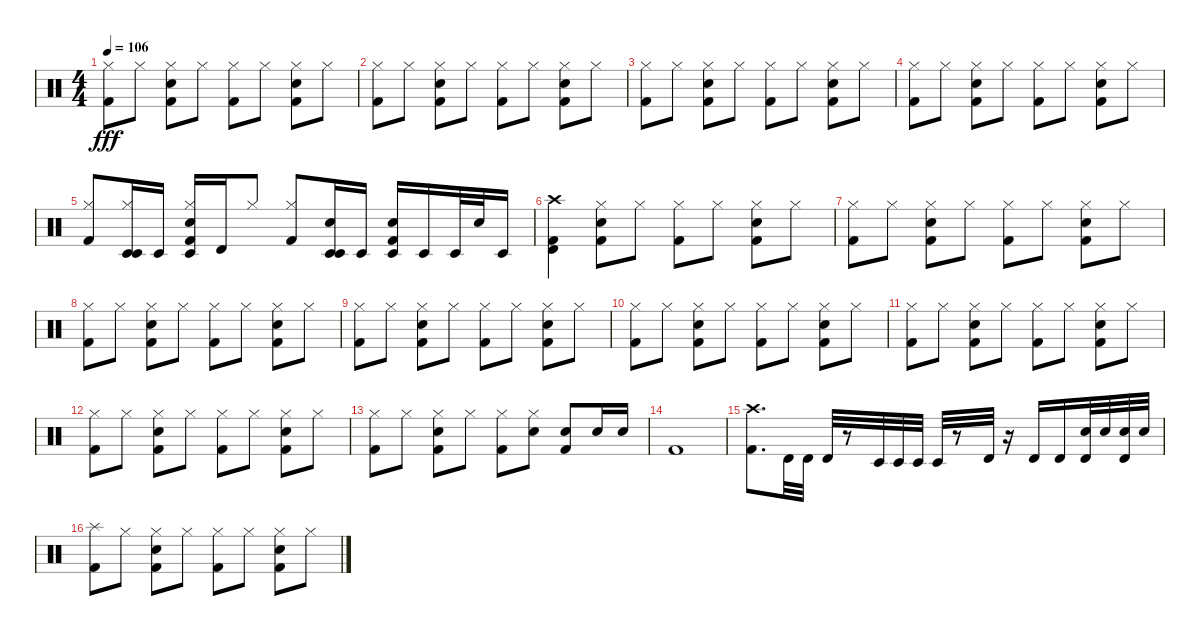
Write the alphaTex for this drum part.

\track "" {instrument percussion}
\staff {score}
\articulation defaults
\ts (4 4)
\tempo 106
\clef neutral
\ks c
("Kick (hit) 2" "Hi-Hat (closed)").8{dy fff} "Hi-Hat (closed)".8 ("Kick (hit) 2" "Snare (hit) 2" "Hi-Hat (closed)").8 "Hi-Hat (closed)".8 ("Kick (hit) 2" "Hi-Hat (closed)").8 "Hi-Hat (closed)".8 ("Kick (hit) 2" "Snare (hit) 2" "Hi-Hat (closed)").8 "Hi-Hat (closed)".8 |
("Kick (hit) 2" "Hi-Hat (closed)").8 "Hi-Hat (closed)".8 ("Kick (hit) 2" "Snare (hit) 2" "Hi-Hat (closed)").8 "Hi-Hat (closed)".8 ("Kick (hit) 2" "Hi-Hat (closed)").8 "Hi-Hat (closed)".8 ("Kick (hit) 2" "Snare (hit) 2" "Hi-Hat (closed)").8 "Hi-Hat (closed)".8 |
("Kick (hit) 2" "Hi-Hat (closed)").8 "Hi-Hat (closed)".8 ("Kick (hit) 2" "Snare (hit) 2" "Hi-Hat (closed)").8 "Hi-Hat (closed)".8 ("Kick (hit) 2" "Hi-Hat (closed)").8 "Hi-Hat (closed)".8 ("Kick (hit) 2" "Snare (hit) 2" "Hi-Hat (closed)").8 "Hi-Hat (closed)".8 |
("Kick (hit) 2" "Hi-Hat (closed)").8 "Hi-Hat (closed)".8 ("Kick (hit) 2" "Snare (hit) 2" "Hi-Hat (closed)").8 "Hi-Hat (closed)".8 ("Kick (hit) 2" "Hi-Hat (closed)").8 "Hi-Hat (closed)".8 ("Kick (hit) 2" "Snare (hit) 2" "Hi-Hat (closed)").8 "Hi-Hat (closed)".8 |
("Kick (hit) 2" "Hi-Hat (closed)").8 ("Timbale low (hit)" "Hi-Hat (closed)" "Timbale low (hit)").16 "Timbale low (hit)".16 ("Hi-Hat (closed)" "Kick (hit) 2" "Snare (hit) 2" "Timbale low (hit)").16 "Timbale high (hit)".16 "Hi-Hat (closed)".8 ("Kick (hit) 2" "Hi-Hat (closed)").8 ("Timbale low (hit)" "Snare (hit) 2" "Timbale low (hit)").16 "Timbale low (hit)".16 ("Kick (hit) 2" "Timbale low (hit)" "Snare (hit) 2").16 "Timbale low (hit)".16 "Timbale low (hit)".32 "Snare (hit) 2".32 "Timbale low (hit)".16 |
("Kick (hit) 2" "Crash high (hit)" "Timbale high (hit)").4 ("Kick (hit) 2" "Snare (hit) 2" "Hi-Hat (closed)").8 "Hi-Hat (closed)".8 ("Kick (hit) 2" "Hi-Hat (closed)").8 "Hi-Hat (closed)".8 ("Kick (hit) 2" "Snare (hit) 2" "Hi-Hat (closed)").8 "Hi-Hat (closed)".8 |
("Kick (hit) 2" "Hi-Hat (closed)").8 "Hi-Hat (closed)".8 ("Kick (hit) 2" "Snare (hit) 2" "Hi-Hat (closed)").8 "Hi-Hat (closed)".8 ("Kick (hit) 2" "Hi-Hat (closed)").8 "Hi-Hat (closed)".8 ("Kick (hit) 2" "Snare (hit) 2" "Hi-Hat (closed)").8 "Hi-Hat (closed)".8 |
("Kick (hit) 2" "Hi-Hat (closed)").8 "Hi-Hat (closed)".8 ("Kick (hit) 2" "Snare (hit) 2" "Hi-Hat (closed)").8 "Hi-Hat (closed)".8 ("Kick (hit) 2" "Hi-Hat (closed)").8 "Hi-Hat (closed)".8 ("Kick (hit) 2" "Snare (hit) 2" "Hi-Hat (closed)").8 "Hi-Hat (closed)".8 |
("Kick (hit) 2" "Hi-Hat (closed)").8 "Hi-Hat (closed)".8 ("Kick (hit) 2" "Snare (hit) 2" "Hi-Hat (closed)").8 "Hi-Hat (closed)".8 ("Kick (hit) 2" "Hi-Hat (closed)").8 "Hi-Hat (closed)".8 ("Kick (hit) 2" "Snare (hit) 2" "Hi-Hat (closed)").8 "Hi-Hat (closed)".8 |
("Kick (hit) 2" "Hi-Hat (closed)").8 "Hi-Hat (closed)".8 ("Kick (hit) 2" "Snare (hit) 2" "Hi-Hat (closed)").8 "Hi-Hat (closed)".8 ("Kick (hit) 2" "Hi-Hat (closed)").8 "Hi-Hat (closed)".8 ("Kick (hit) 2" "Snare (hit) 2" "Hi-Hat (closed)").8 "Hi-Hat (closed)".8 |
("Kick (hit) 2" "Hi-Hat (closed)").8 "Hi-Hat (closed)".8 ("Kick (hit) 2" "Snare (hit) 2" "Hi-Hat (closed)").8 "Hi-Hat (closed)".8 ("Kick (hit) 2" "Hi-Hat (closed)").8 "Hi-Hat (closed)".8 ("Kick (hit) 2" "Snare (hit) 2" "Hi-Hat (closed)").8 "Hi-Hat (closed)".8 |
("Kick (hit) 2" "Hi-Hat (closed)").8 "Hi-Hat (closed)".8 ("Kick (hit) 2" "Snare (hit) 2" "Hi-Hat (closed)").8 "Hi-Hat (closed)".8 ("Kick (hit) 2" "Hi-Hat (closed)").8 "Hi-Hat (closed)".8 ("Kick (hit) 2" "Snare (hit) 2" "Hi-Hat (closed)").8 "Hi-Hat (closed)".8 |
("Hi-Hat (closed)" "Kick (hit) 2").8 "Hi-Hat (closed)".8 ("Hi-Hat (closed)" "Kick (hit) 2" "Snare (hit) 2").8 "Hi-Hat (closed)".8 ("Kick (hit) 2" "Hi-Hat (closed)").8 ("Hi-Hat (closed)" "Snare (hit) 2").8 ("Kick (hit) 2" "Snare (hit) 2").8 "Snare (hit) 2".16 "Snare (hit) 2".16 |
"Kick (hit) 2".1 |
("Kick (hit) 2" "Crash high (hit)").8{d} "Timbale high (hit)".32 "Timbale high (hit)".32 "Timbale high (hit)".32 r.8 "Timbale low (hit)".32 "Timbale low (hit)".32 "Timbale low (hit)".32 "Timbale low (hit)".32 r.8 "Timbale high (hit)".32 r.16 "Timbale high (hit)".16 "Timbale high (hit)".16 ("Snare (hit) 2" "Timbale high (hit)").32 "Snare (hit) 2".32 ("Snare (hit) 2" "Timbale high (hit)").32 "Snare (hit) 2".32 |
("Kick (hit) 2" "Splash (hit)").8 "Hi-Hat (closed)".8 ("Kick (hit) 2" "Snare (hit) 2" "Hi-Hat (closed)").8 "Hi-Hat (closed)".8 ("Kick (hit) 2" "Hi-Hat (closed)").8 "Hi-Hat (closed)".8 ("Kick (hit) 2" "Snare (hit) 2" "Hi-Hat (closed)").8 "Hi-Hat (closed)".8
